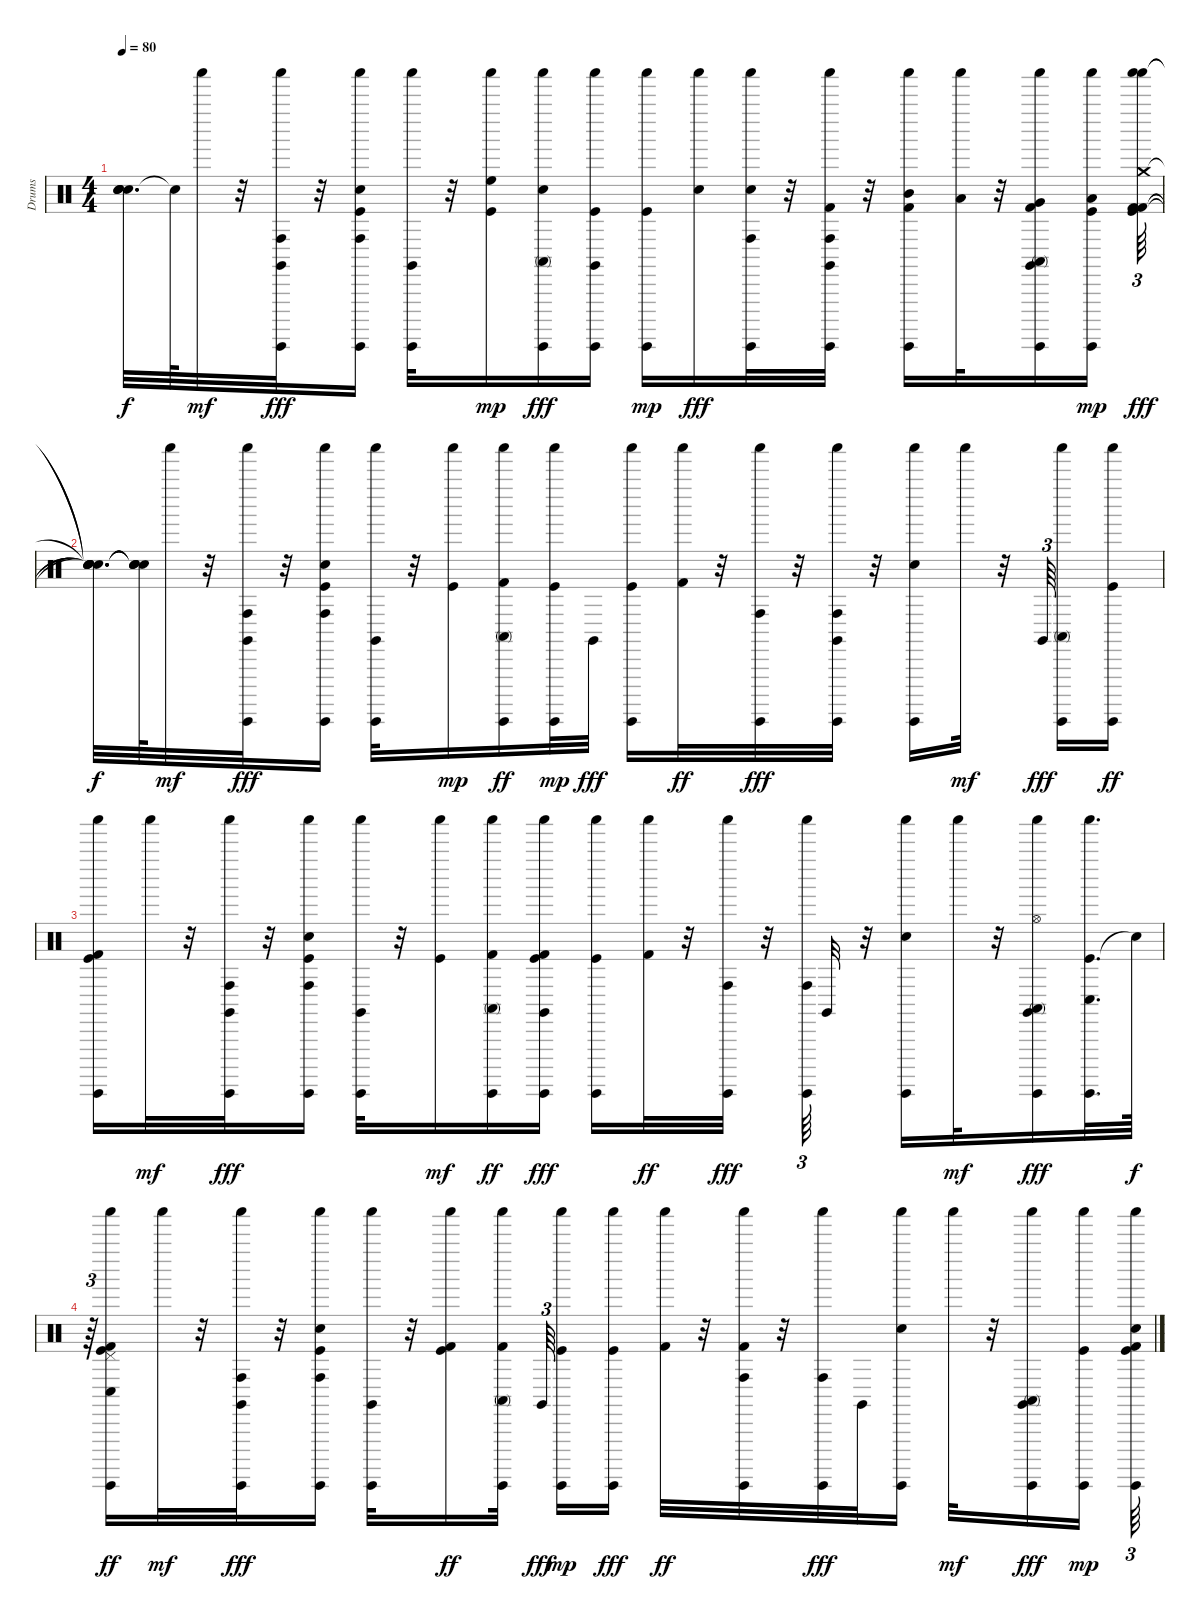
\track ("Drums" "Drums") {instrument percussion}
\staff {score}
\articulation defaults
\ts (4 4)
\tempo 80
\clef neutral
\ks c
("Snare (hit)"{t} "Snare (hit)"{t} "Snare (hit)"{t} "Snare (hit)"{t}).32{d dy f} "Snare (hit)"{t}.64 "Shaker (hit)".32{dy mf} r.32 ("Guiro (hit)" "Shaker (hit)" "Conga high (hit)" "Claves (hit)").32{dy fff} r.32 ("Guiro (hit)" "Shaker (hit)" "Kick (hit)" "Conga high (hit)" "Electric Snare (hit)").16 ("Claves (hit)" "Guiro (hit)" "Shaker (hit)").32 r.32 ("Shaker (hit)" "Kick (hit)" "High Floor Tom (hit)").16{dy mp} ("Guiro (hit)" "Shaker (hit)" "Conga high (mute)" "Electric Snare (hit)").16{dy fff} ("Guiro (hit)" "Shaker (hit)" "Kick (hit)" "Claves (hit)").16 ("Guiro (hit)" "Shaker (hit)" "Kick (hit)").16{dy mp} ("Shaker (hit)" "Electric Snare (hit)").16{dy fff} ("Guiro (hit)" "Shaker (hit)" "Conga high (hit)" "Electric Snare (hit)").32 r.32 ("Claves (hit)" "Kick (hit) 2" "Guiro (hit)" "Shaker (hit)" "Conga high (hit)").32 r.32 ("Mid Tom (hit)" "Kick (hit) 2" "Guiro (hit)" "Shaker (hit)").16 ("Shaker (hit)" "Low Tom (hit)").32 r.32 ("Claves (hit)" "Kick (hit) 2" "Guiro (hit)" "Shaker (hit)" "Conga high (mute)" "Very Low Tom (hit)").16 ("Low Floor Tom (hit)" "Guiro (hit)" "Shaker (hit)" "Kick (hit)").16{dy mp} ("Shaker (hit)" "Kick (hit)" "Crash medium (hit)" "Kick (hit) 2" "Kick (hit) 2" "Shaker (hit)").64{tu (3 2) dy fff} |
("Snare (hit)"{t} "Snare (hit)"{t} "Snare (hit)"{t} "Snare (hit)"{t} "Snare (hit)"{t} "Snare (hit)"{t}).32{d dy f} ("Snare (hit)"{t} "Snare (hit)"{t} "Snare (hit)"{t} "Snare (hit)"{t}).64 "Shaker (hit)".32{dy mf} r.32 ("Shaker (hit)" "Guiro (hit)" "Conga high (hit)" "Claves (hit)").32{dy fff} r.32 ("Shaker (hit)" "Kick (hit)" "Guiro (hit)" "Conga high (hit)" "Electric Snare (hit)").16 ("Claves (hit)" "Shaker (hit)" "Guiro (hit)").32 r.32 ("Shaker (hit)" "Kick (hit)").16{dy mp} ("Shaker (hit)" "Guiro (hit)" "Conga high (mute)" "Kick (hit) 2").16{dy ff} ("Shaker (hit)" "Kick (hit)" "Guiro (hit)").32{dy mp} "Claves (hit)".32{dy fff} ("Shaker (hit)" "Kick (hit)" "Guiro (hit)").16 ("Shaker (hit)" "Kick (hit) 2").32{dy ff} r.32 ("Shaker (hit)" "Guiro (hit)" "Conga high (hit)").32{dy fff} r.32 ("Claves (hit)" "Shaker (hit)" "Guiro (hit)" "Conga high (hit)").32 r.32 ("Shaker (hit)" "Guiro (hit)" "Electric Snare (hit)").16 "Shaker (hit)".32{dy mf} r.32 "Claves (hit)".64{tu (3 2) dy fff} ("Shaker (hit)" "Guiro (hit)" "Conga high (mute)").16 ("Shaker (hit)" "Kick (hit)" "Guiro (hit)").16{dy ff} |
("Kick (hit)" "Guiro (hit)" "Shaker (hit)" "Kick (hit) 2").16 "Shaker (hit)".32{dy mf} r.32 ("Claves (hit)" "Guiro (hit)" "Shaker (hit)" "Conga high (hit)").32{dy fff} r.32 ("Kick (hit)" "Guiro (hit)" "Shaker (hit)" "Conga high (hit)" "Electric Snare (hit)").16 ("Claves (hit)" "Guiro (hit)" "Shaker (hit)").32 r.32 ("Kick (hit)" "Shaker (hit)").16{dy mf} ("Guiro (hit)" "Shaker (hit)" "Conga high (mute)" "Kick (hit) 2").16{dy ff} ("Kick (hit)" "Guiro (hit)" "Shaker (hit)" "Kick (hit) 2" "Claves (hit)").16{dy fff} ("Kick (hit)" "Guiro (hit)" "Shaker (hit)").16 ("Shaker (hit)" "Kick (hit) 2").32{dy ff} r.32 ("Guiro (hit)" "Shaker (hit)" "Conga high (hit)").32{dy fff} r.32 ("Guiro (hit)" "Shaker (hit)" "Conga high (hit)").64{tu (3 2)} "Claves (hit)".32 r.32 ("Guiro (hit)" "Shaker (hit)" "Electric Snare (hit)").16 "Shaker (hit)".32{dy mf} r.32 ("Guiro (hit)" "Shaker (hit)" "Hi-Hat (open)" "Conga high (mute)" "Claves (hit)").16{dy fff} ("Kick (hit)" "Guiro (hit)" "Shaker (hit)" "Conga low (hit)").32{d} "Snare (hit)"{t}.64{dy f} |
r.64{tu (3 2)} ("Kick (hit)" "Guiro (hit)" "Shaker (hit)" "Pedal Hi-Hat (hit)" "Conga low (hit)" "Kick (hit) 2").16{dy ff} "Shaker (hit)".32{dy mf} r.32 ("Guiro (hit)" "Shaker (hit)" "Conga high (hit)" "Claves (hit)").32{dy fff} r.32 ("Kick (hit)" "Guiro (hit)" "Shaker (hit)" "Conga high (hit)" "Electric Snare (hit)").16 ("Claves (hit)" "Guiro (hit)" "Shaker (hit)").32 r.32 ("Kick (hit)" "Shaker (hit)" "Kick (hit) 2").16{dy ff} ("Guiro (hit)" "Shaker (hit)" "Conga high (mute)" "Kick (hit) 2").32 "Claves (hit)".64{tu (3 2) dy fff} ("Kick (hit)" "Guiro (hit)" "Shaker (hit)").16{dy mp} ("Kick (hit)" "Guiro (hit)" "Shaker (hit)").16{dy fff} ("Shaker (hit)" "Kick (hit) 2").32{dy ff} r.32 ("Guiro (hit)" "Shaker (hit)" "Conga high (hit)" "Kick (hit) 2").32 r.32 ("Guiro (hit)" "Shaker (hit)" "Conga high (hit)").32{dy fff} "Claves (hit)".32 ("Guiro (hit)" "Shaker (hit)" "Electric Snare (hit)").16 "Shaker (hit)".32{dy mf} r.32 ("Claves (hit)" "Guiro (hit)" "Shaker (hit)" "Conga high (mute)").16{dy fff} ("Kick (hit)" "Guiro (hit)" "Shaker (hit)").16{dy mp} ("Electric Snare (hit)" "Kick (hit) 2" "Guiro (hit)" "Shaker (hit)" "Kick (hit)").64{tu (3 2)}
